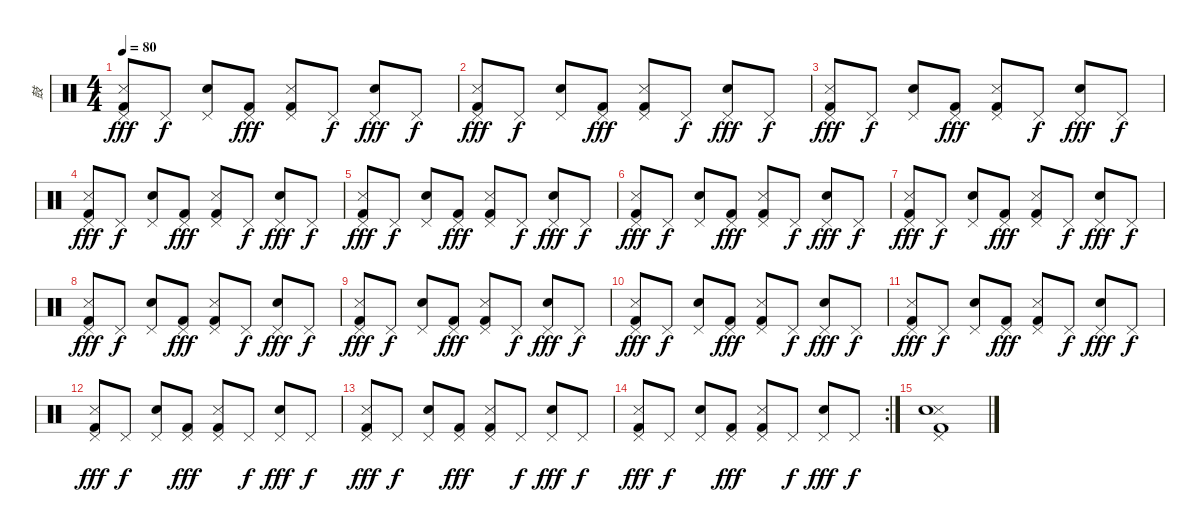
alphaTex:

\track ("鼓" "鼓") {instrument percussion}
\staff {score}
\articulation defaults
\ts (4 4)
\tempo 80
\clef neutral
\ks c
("Snare (side stick) 3" "Pedal Hi-Hat (hit)" "Kick (hit) 2").8{dy fff} "Pedal Hi-Hat (hit)".8{dy f} ("Hand Clap (hit)" "Pedal Hi-Hat (hit)").8 ("Pedal Hi-Hat (hit)" "Kick (hit) 2").8{dy fff} ("Snare (side stick) 3" "Pedal Hi-Hat (hit)" "Kick (hit) 2").8 "Pedal Hi-Hat (hit)".8{dy f} ("Hand Clap (hit)" "Pedal Hi-Hat (hit)").8{dy fff} "Pedal Hi-Hat (hit)".8{dy f} |
("Snare (side stick) 3" "Pedal Hi-Hat (hit)" "Kick (hit) 2").8{dy fff} "Pedal Hi-Hat (hit)".8{dy f} ("Hand Clap (hit)" "Pedal Hi-Hat (hit)").8 ("Pedal Hi-Hat (hit)" "Kick (hit) 2").8{dy fff} ("Snare (side stick) 3" "Pedal Hi-Hat (hit)" "Kick (hit) 2").8 "Pedal Hi-Hat (hit)".8{dy f} ("Hand Clap (hit)" "Pedal Hi-Hat (hit)").8{dy fff} "Pedal Hi-Hat (hit)".8{dy f} |
("Snare (side stick) 3" "Pedal Hi-Hat (hit)" "Kick (hit) 2").8{dy fff} "Pedal Hi-Hat (hit)".8{dy f} ("Hand Clap (hit)" "Pedal Hi-Hat (hit)").8 ("Pedal Hi-Hat (hit)" "Kick (hit) 2").8{dy fff} ("Snare (side stick) 3" "Pedal Hi-Hat (hit)" "Kick (hit) 2").8 "Pedal Hi-Hat (hit)".8{dy f} ("Hand Clap (hit)" "Pedal Hi-Hat (hit)").8{dy fff} "Pedal Hi-Hat (hit)".8{dy f} |
("Snare (side stick) 3" "Pedal Hi-Hat (hit)" "Kick (hit) 2").8{dy fff} "Pedal Hi-Hat (hit)".8{dy f} ("Hand Clap (hit)" "Pedal Hi-Hat (hit)").8 ("Pedal Hi-Hat (hit)" "Kick (hit) 2").8{dy fff} ("Snare (side stick) 3" "Pedal Hi-Hat (hit)" "Kick (hit) 2").8 "Pedal Hi-Hat (hit)".8{dy f} ("Hand Clap (hit)" "Pedal Hi-Hat (hit)").8{dy fff} "Pedal Hi-Hat (hit)".8{dy f} |
("Snare (side stick) 3" "Pedal Hi-Hat (hit)" "Kick (hit) 2").8{dy fff} "Pedal Hi-Hat (hit)".8{dy f} ("Hand Clap (hit)" "Pedal Hi-Hat (hit)").8 ("Pedal Hi-Hat (hit)" "Kick (hit) 2").8{dy fff} ("Snare (side stick) 3" "Pedal Hi-Hat (hit)" "Kick (hit) 2").8 "Pedal Hi-Hat (hit)".8{dy f} ("Hand Clap (hit)" "Pedal Hi-Hat (hit)").8{dy fff} "Pedal Hi-Hat (hit)".8{dy f} |
("Snare (side stick) 3" "Pedal Hi-Hat (hit)" "Kick (hit) 2").8{dy fff} "Pedal Hi-Hat (hit)".8{dy f} ("Hand Clap (hit)" "Pedal Hi-Hat (hit)").8 ("Pedal Hi-Hat (hit)" "Kick (hit) 2").8{dy fff} ("Snare (side stick) 3" "Pedal Hi-Hat (hit)" "Kick (hit) 2").8 "Pedal Hi-Hat (hit)".8{dy f} ("Hand Clap (hit)" "Pedal Hi-Hat (hit)").8{dy fff} "Pedal Hi-Hat (hit)".8{dy f} |
("Snare (side stick) 3" "Pedal Hi-Hat (hit)" "Kick (hit) 2").8{dy fff} "Pedal Hi-Hat (hit)".8{dy f} ("Hand Clap (hit)" "Pedal Hi-Hat (hit)").8 ("Pedal Hi-Hat (hit)" "Kick (hit) 2").8{dy fff} ("Snare (side stick) 3" "Pedal Hi-Hat (hit)" "Kick (hit) 2").8 "Pedal Hi-Hat (hit)".8{dy f} ("Hand Clap (hit)" "Pedal Hi-Hat (hit)").8{dy fff} "Pedal Hi-Hat (hit)".8{dy f} |
("Snare (side stick) 3" "Pedal Hi-Hat (hit)" "Kick (hit) 2").8{dy fff} "Pedal Hi-Hat (hit)".8{dy f} ("Hand Clap (hit)" "Pedal Hi-Hat (hit)").8 ("Pedal Hi-Hat (hit)" "Kick (hit) 2").8{dy fff} ("Snare (side stick) 3" "Pedal Hi-Hat (hit)" "Kick (hit) 2").8 "Pedal Hi-Hat (hit)".8{dy f} ("Hand Clap (hit)" "Pedal Hi-Hat (hit)").8{dy fff} "Pedal Hi-Hat (hit)".8{dy f} |
("Snare (side stick) 3" "Pedal Hi-Hat (hit)" "Kick (hit) 2").8{dy fff} "Pedal Hi-Hat (hit)".8{dy f} ("Hand Clap (hit)" "Pedal Hi-Hat (hit)").8 ("Pedal Hi-Hat (hit)" "Kick (hit) 2").8{dy fff} ("Snare (side stick) 3" "Pedal Hi-Hat (hit)" "Kick (hit) 2").8 "Pedal Hi-Hat (hit)".8{dy f} ("Hand Clap (hit)" "Pedal Hi-Hat (hit)").8{dy fff} "Pedal Hi-Hat (hit)".8{dy f} |
("Snare (side stick) 3" "Pedal Hi-Hat (hit)" "Kick (hit) 2").8{dy fff} "Pedal Hi-Hat (hit)".8{dy f} ("Hand Clap (hit)" "Pedal Hi-Hat (hit)").8 ("Pedal Hi-Hat (hit)" "Kick (hit) 2").8{dy fff} ("Snare (side stick) 3" "Pedal Hi-Hat (hit)" "Kick (hit) 2").8 "Pedal Hi-Hat (hit)".8{dy f} ("Hand Clap (hit)" "Pedal Hi-Hat (hit)").8{dy fff} "Pedal Hi-Hat (hit)".8{dy f} |
("Snare (side stick) 3" "Pedal Hi-Hat (hit)" "Kick (hit) 2").8{dy fff} "Pedal Hi-Hat (hit)".8{dy f} ("Hand Clap (hit)" "Pedal Hi-Hat (hit)").8 ("Pedal Hi-Hat (hit)" "Kick (hit) 2").8{dy fff} ("Snare (side stick) 3" "Pedal Hi-Hat (hit)" "Kick (hit) 2").8 "Pedal Hi-Hat (hit)".8{dy f} ("Hand Clap (hit)" "Pedal Hi-Hat (hit)").8{dy fff} "Pedal Hi-Hat (hit)".8{dy f} |
("Snare (side stick) 3" "Pedal Hi-Hat (hit)" "Kick (hit) 2").8{dy fff} "Pedal Hi-Hat (hit)".8{dy f} ("Hand Clap (hit)" "Pedal Hi-Hat (hit)").8 ("Pedal Hi-Hat (hit)" "Kick (hit) 2").8{dy fff} ("Snare (side stick) 3" "Pedal Hi-Hat (hit)" "Kick (hit) 2").8 "Pedal Hi-Hat (hit)".8{dy f} ("Hand Clap (hit)" "Pedal Hi-Hat (hit)").8{dy fff} "Pedal Hi-Hat (hit)".8{dy f} |
("Snare (side stick) 3" "Pedal Hi-Hat (hit)" "Kick (hit) 2").8{dy fff} "Pedal Hi-Hat (hit)".8{dy f} ("Hand Clap (hit)" "Pedal Hi-Hat (hit)").8 ("Pedal Hi-Hat (hit)" "Kick (hit) 2").8{dy fff} ("Snare (side stick) 3" "Pedal Hi-Hat (hit)" "Kick (hit) 2").8 "Pedal Hi-Hat (hit)".8{dy f} ("Hand Clap (hit)" "Pedal Hi-Hat (hit)").8{dy fff} "Pedal Hi-Hat (hit)".8{dy f} |
\rc 2
("Snare (side stick) 3" "Pedal Hi-Hat (hit)" "Kick (hit) 2").8{dy fff} "Pedal Hi-Hat (hit)".8{dy f} ("Hand Clap (hit)" "Pedal Hi-Hat (hit)").8 ("Pedal Hi-Hat (hit)" "Kick (hit) 2").8{dy fff} ("Snare (side stick) 3" "Pedal Hi-Hat (hit)" "Kick (hit) 2").8 "Pedal Hi-Hat (hit)".8{dy f} ("Hand Clap (hit)" "Pedal Hi-Hat (hit)").8{dy fff} "Pedal Hi-Hat (hit)".8{dy f} |
("Snare (side stick) 3" "Hand Clap (hit)" "Pedal Hi-Hat (hit)" "Kick (hit) 2").1
